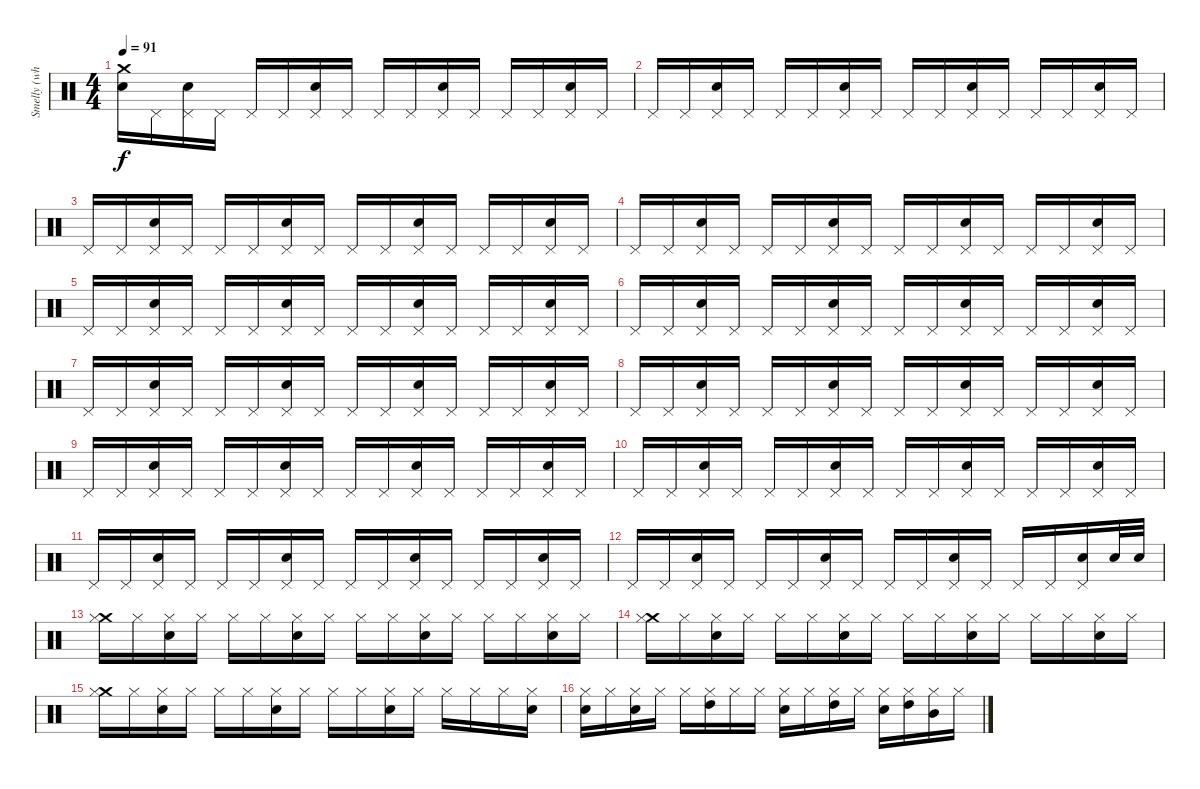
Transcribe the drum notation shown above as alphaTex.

\track ("Smelly (who ever change his name)" "Smelly (wh") {instrument percussion}
\staff {score}
\articulation defaults
\ts (4 4)
\tempo 91
\clef neutral
\ks c
("Crash medium (hit)" "Electric Snare (hit)").16{dy f} "Pedal Hi-Hat (hit)".16 ("Pedal Hi-Hat (hit)" "Electric Snare (hit)").16 "Pedal Hi-Hat (hit)".16 "Pedal Hi-Hat (hit)".16 "Pedal Hi-Hat (hit)".16 ("Pedal Hi-Hat (hit)" "Electric Snare (hit)").16 "Pedal Hi-Hat (hit)".16 "Pedal Hi-Hat (hit)".16 "Pedal Hi-Hat (hit)".16 ("Pedal Hi-Hat (hit)" "Electric Snare (hit)").16 "Pedal Hi-Hat (hit)".16 "Pedal Hi-Hat (hit)".16 "Pedal Hi-Hat (hit)".16 ("Pedal Hi-Hat (hit)" "Electric Snare (hit)").16 "Pedal Hi-Hat (hit)".16 |
"Pedal Hi-Hat (hit)".16 "Pedal Hi-Hat (hit)".16 ("Pedal Hi-Hat (hit)" "Electric Snare (hit)").16 "Pedal Hi-Hat (hit)".16 "Pedal Hi-Hat (hit)".16 "Pedal Hi-Hat (hit)".16 ("Pedal Hi-Hat (hit)" "Electric Snare (hit)").16 "Pedal Hi-Hat (hit)".16 "Pedal Hi-Hat (hit)".16 "Pedal Hi-Hat (hit)".16 ("Pedal Hi-Hat (hit)" "Electric Snare (hit)").16 "Pedal Hi-Hat (hit)".16 "Pedal Hi-Hat (hit)".16 "Pedal Hi-Hat (hit)".16 ("Pedal Hi-Hat (hit)" "Electric Snare (hit)").16 "Pedal Hi-Hat (hit)".16 |
"Pedal Hi-Hat (hit)".16 "Pedal Hi-Hat (hit)".16 ("Pedal Hi-Hat (hit)" "Electric Snare (hit)").16 "Pedal Hi-Hat (hit)".16 "Pedal Hi-Hat (hit)".16 "Pedal Hi-Hat (hit)".16 ("Pedal Hi-Hat (hit)" "Electric Snare (hit)").16 "Pedal Hi-Hat (hit)".16 "Pedal Hi-Hat (hit)".16 "Pedal Hi-Hat (hit)".16 ("Pedal Hi-Hat (hit)" "Electric Snare (hit)").16 "Pedal Hi-Hat (hit)".16 "Pedal Hi-Hat (hit)".16 "Pedal Hi-Hat (hit)".16 ("Pedal Hi-Hat (hit)" "Electric Snare (hit)").16 "Pedal Hi-Hat (hit)".16 |
"Pedal Hi-Hat (hit)".16 "Pedal Hi-Hat (hit)".16 ("Pedal Hi-Hat (hit)" "Electric Snare (hit)").16 "Pedal Hi-Hat (hit)".16 "Pedal Hi-Hat (hit)".16 "Pedal Hi-Hat (hit)".16 ("Pedal Hi-Hat (hit)" "Electric Snare (hit)").16 "Pedal Hi-Hat (hit)".16 "Pedal Hi-Hat (hit)".16 "Pedal Hi-Hat (hit)".16 ("Pedal Hi-Hat (hit)" "Electric Snare (hit)").16 "Pedal Hi-Hat (hit)".16 "Pedal Hi-Hat (hit)".16 "Pedal Hi-Hat (hit)".16 ("Pedal Hi-Hat (hit)" "Electric Snare (hit)").16 "Pedal Hi-Hat (hit)".16 |
"Pedal Hi-Hat (hit)".16 "Pedal Hi-Hat (hit)".16 ("Pedal Hi-Hat (hit)" "Electric Snare (hit)").16 "Pedal Hi-Hat (hit)".16 "Pedal Hi-Hat (hit)".16 "Pedal Hi-Hat (hit)".16 ("Pedal Hi-Hat (hit)" "Electric Snare (hit)").16 "Pedal Hi-Hat (hit)".16 "Pedal Hi-Hat (hit)".16 "Pedal Hi-Hat (hit)".16 ("Pedal Hi-Hat (hit)" "Electric Snare (hit)").16 "Pedal Hi-Hat (hit)".16 "Pedal Hi-Hat (hit)".16 "Pedal Hi-Hat (hit)".16 ("Pedal Hi-Hat (hit)" "Electric Snare (hit)").16 "Pedal Hi-Hat (hit)".16 |
"Pedal Hi-Hat (hit)".16 "Pedal Hi-Hat (hit)".16 ("Pedal Hi-Hat (hit)" "Electric Snare (hit)").16 "Pedal Hi-Hat (hit)".16 "Pedal Hi-Hat (hit)".16 "Pedal Hi-Hat (hit)".16 ("Pedal Hi-Hat (hit)" "Electric Snare (hit)").16 "Pedal Hi-Hat (hit)".16 "Pedal Hi-Hat (hit)".16 "Pedal Hi-Hat (hit)".16 ("Pedal Hi-Hat (hit)" "Electric Snare (hit)").16 "Pedal Hi-Hat (hit)".16 "Pedal Hi-Hat (hit)".16 "Pedal Hi-Hat (hit)".16 ("Pedal Hi-Hat (hit)" "Electric Snare (hit)").16 "Pedal Hi-Hat (hit)".16 |
"Pedal Hi-Hat (hit)".16 "Pedal Hi-Hat (hit)".16 ("Pedal Hi-Hat (hit)" "Electric Snare (hit)").16 "Pedal Hi-Hat (hit)".16 "Pedal Hi-Hat (hit)".16 "Pedal Hi-Hat (hit)".16 ("Pedal Hi-Hat (hit)" "Electric Snare (hit)").16 "Pedal Hi-Hat (hit)".16 "Pedal Hi-Hat (hit)".16 "Pedal Hi-Hat (hit)".16 ("Pedal Hi-Hat (hit)" "Electric Snare (hit)").16 "Pedal Hi-Hat (hit)".16 "Pedal Hi-Hat (hit)".16 "Pedal Hi-Hat (hit)".16 ("Pedal Hi-Hat (hit)" "Electric Snare (hit)").16 "Pedal Hi-Hat (hit)".16 |
"Pedal Hi-Hat (hit)".16 "Pedal Hi-Hat (hit)".16 ("Pedal Hi-Hat (hit)" "Electric Snare (hit)").16 "Pedal Hi-Hat (hit)".16 "Pedal Hi-Hat (hit)".16 "Pedal Hi-Hat (hit)".16 ("Pedal Hi-Hat (hit)" "Electric Snare (hit)").16 "Pedal Hi-Hat (hit)".16 "Pedal Hi-Hat (hit)".16 "Pedal Hi-Hat (hit)".16 ("Pedal Hi-Hat (hit)" "Electric Snare (hit)").16 "Pedal Hi-Hat (hit)".16 "Pedal Hi-Hat (hit)".16 "Pedal Hi-Hat (hit)".16 ("Pedal Hi-Hat (hit)" "Electric Snare (hit)").16 "Pedal Hi-Hat (hit)".16 |
"Pedal Hi-Hat (hit)".16 "Pedal Hi-Hat (hit)".16 ("Pedal Hi-Hat (hit)" "Electric Snare (hit)").16 "Pedal Hi-Hat (hit)".16 "Pedal Hi-Hat (hit)".16 "Pedal Hi-Hat (hit)".16 ("Pedal Hi-Hat (hit)" "Electric Snare (hit)").16 "Pedal Hi-Hat (hit)".16 "Pedal Hi-Hat (hit)".16 "Pedal Hi-Hat (hit)".16 ("Pedal Hi-Hat (hit)" "Electric Snare (hit)").16 "Pedal Hi-Hat (hit)".16 "Pedal Hi-Hat (hit)".16 "Pedal Hi-Hat (hit)".16 ("Pedal Hi-Hat (hit)" "Electric Snare (hit)").16 "Pedal Hi-Hat (hit)".16 |
"Pedal Hi-Hat (hit)".16 "Pedal Hi-Hat (hit)".16 ("Pedal Hi-Hat (hit)" "Electric Snare (hit)").16 "Pedal Hi-Hat (hit)".16 "Pedal Hi-Hat (hit)".16 "Pedal Hi-Hat (hit)".16 ("Pedal Hi-Hat (hit)" "Electric Snare (hit)").16 "Pedal Hi-Hat (hit)".16 "Pedal Hi-Hat (hit)".16 "Pedal Hi-Hat (hit)".16 ("Pedal Hi-Hat (hit)" "Electric Snare (hit)").16 "Pedal Hi-Hat (hit)".16 "Pedal Hi-Hat (hit)".16 "Pedal Hi-Hat (hit)".16 ("Pedal Hi-Hat (hit)" "Electric Snare (hit)").16 "Pedal Hi-Hat (hit)".16 |
"Pedal Hi-Hat (hit)".16 "Pedal Hi-Hat (hit)".16 ("Pedal Hi-Hat (hit)" "Electric Snare (hit)").16 "Pedal Hi-Hat (hit)".16 "Pedal Hi-Hat (hit)".16 "Pedal Hi-Hat (hit)".16 ("Pedal Hi-Hat (hit)" "Electric Snare (hit)").16 "Pedal Hi-Hat (hit)".16 "Pedal Hi-Hat (hit)".16 "Pedal Hi-Hat (hit)".16 ("Pedal Hi-Hat (hit)" "Electric Snare (hit)").16 "Pedal Hi-Hat (hit)".16 "Pedal Hi-Hat (hit)".16 "Pedal Hi-Hat (hit)".16 ("Pedal Hi-Hat (hit)" "Electric Snare (hit)").16 "Pedal Hi-Hat (hit)".16 |
"Pedal Hi-Hat (hit)".16 "Pedal Hi-Hat (hit)".16 ("Pedal Hi-Hat (hit)" "Electric Snare (hit)").16 "Pedal Hi-Hat (hit)".16 "Pedal Hi-Hat (hit)".16 "Pedal Hi-Hat (hit)".16 ("Pedal Hi-Hat (hit)" "Electric Snare (hit)").16 "Pedal Hi-Hat (hit)".16 "Pedal Hi-Hat (hit)".16 "Pedal Hi-Hat (hit)".16 ("Pedal Hi-Hat (hit)" "Electric Snare (hit)").16 "Pedal Hi-Hat (hit)".16 "Pedal Hi-Hat (hit)".16 "Pedal Hi-Hat (hit)".16 ("Pedal Hi-Hat (hit)" "Electric Snare (hit)").16 "Electric Snare (hit)".32 "Electric Snare (hit)".32 |
("Crash medium (hit)" "Hi-Hat (closed)").16 "Hi-Hat (closed)".16 ("Hi-Hat (closed)" "Electric Snare (hit)").16 "Hi-Hat (closed)".16 "Hi-Hat (closed)".16 "Hi-Hat (closed)".16 ("Hi-Hat (closed)" "Electric Snare (hit)").16 "Hi-Hat (closed)".16 "Hi-Hat (closed)".16 "Hi-Hat (closed)".16 ("Hi-Hat (closed)" "Electric Snare (hit)").16 "Hi-Hat (closed)".16 "Hi-Hat (closed)".16 "Hi-Hat (closed)".16 ("Hi-Hat (closed)" "Electric Snare (hit)").16 "Hi-Hat (closed)".16 |
("Crash medium (hit)" "Hi-Hat (closed)").16 "Hi-Hat (closed)".16 ("Hi-Hat (closed)" "Electric Snare (hit)").16 "Hi-Hat (closed)".16 "Hi-Hat (closed)".16 "Hi-Hat (closed)".16 ("Hi-Hat (closed)" "Electric Snare (hit)").16 "Hi-Hat (closed)".16 "Hi-Hat (closed)".16 "Hi-Hat (closed)".16 ("Hi-Hat (closed)" "Electric Snare (hit)").16 "Hi-Hat (closed)".16 "Hi-Hat (closed)".16 "Hi-Hat (closed)".16 ("Hi-Hat (closed)" "Electric Snare (hit)").16 "Hi-Hat (closed)".16 |
("Crash medium (hit)" "Hi-Hat (closed)").16 "Hi-Hat (closed)".16 ("Hi-Hat (closed)" "Electric Snare (hit)").16 "Hi-Hat (closed)".16 "Hi-Hat (closed)".16 "Hi-Hat (closed)".16 ("Hi-Hat (closed)" "Electric Snare (hit)").16 "Hi-Hat (closed)".16 "Hi-Hat (closed)".16 "Hi-Hat (closed)".16 ("Hi-Hat (closed)" "Electric Snare (hit)").16 "Hi-Hat (closed)".16 "Hi-Hat (closed)".16 "Hi-Hat (closed)".16 "Hi-Hat (closed)".16 ("Hi-Hat (closed)" "Electric Snare (hit)").16 |
("Hi-Hat (closed)" "Electric Snare (hit)").16 "Hi-Hat (closed)".16 ("Hi-Hat (closed)" "Electric Snare (hit)").16 "Hi-Hat (closed)".16 "Hi-Hat (closed)".16 ("Hi-Hat (closed)" "High Tom (hit)").16 "Hi-Hat (closed)".16 "Hi-Hat (closed)".16 ("Hi-Hat (closed)" "Electric Snare (hit)").16 "Hi-Hat (closed)".16 ("Hi-Hat (closed)" "High Tom (hit)").16 "Hi-Hat (closed)".16 ("Hi-Hat (closed)" "Electric Snare (hit)").16 ("Hi-Hat (closed)" "High Tom (hit)").16 ("Hi-Hat (closed)" "Mid Tom (hit)").16 "Hi-Hat (closed)".16
